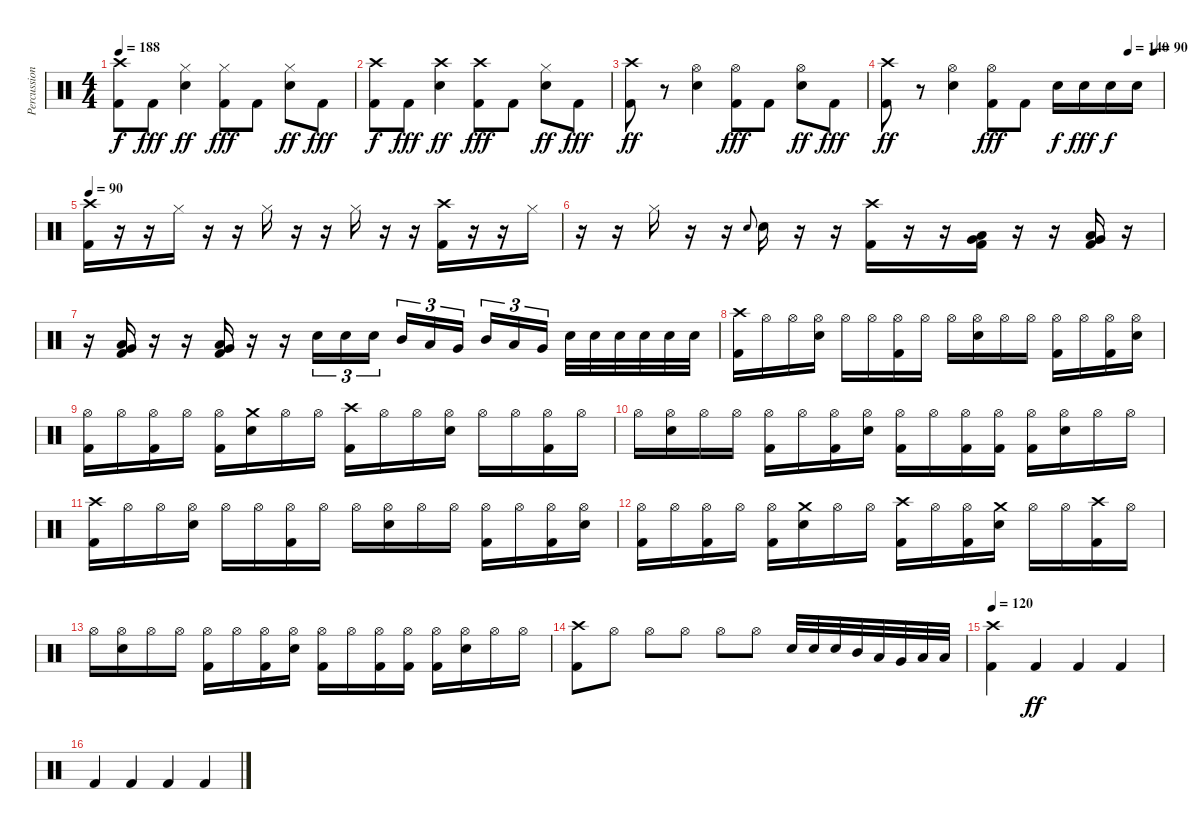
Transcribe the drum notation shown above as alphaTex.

\track ("Percussion" "Percussion") {instrument percussion}
\staff {score}
\articulation defaults
\ts (4 4)
\tempo 188
\clef neutral
\ks c
("Crash high (hit)" "Kick (hit) 2").8{dy f} "Kick (hit) 2".8{dy fff} ("Hi-Hat (closed)" "Snare (hit) 2").4{dy ff} ("Hi-Hat (closed)" "Kick (hit) 2").8{dy fff} "Kick (hit) 2".8 ("Hi-Hat (closed)" "Snare (hit) 2").8{dy ff} "Kick (hit) 2".8{dy fff} |
("Crash high (hit)" "Kick (hit) 2").8{dy f} "Kick (hit) 2".8{dy fff} ("Crash high (hit)" "Snare (hit) 2").4{dy ff} ("Crash high (hit)" "Kick (hit) 2").8{dy fff} "Kick (hit) 2".8 ("Hi-Hat (closed)" "Snare (hit) 2").8{dy ff} "Kick (hit) 2".8{dy fff} |
("Crash high (hit)" "Kick (hit) 2").8{dy ff} r.8 ("Hi-Hat (open)" "Snare (hit) 2").4 ("Hi-Hat (open)" "Kick (hit) 2").8{dy fff} "Kick (hit) 2".8 ("Hi-Hat (open)" "Snare (hit) 2").8{dy ff} "Kick (hit) 2".8{dy fff} |
\tempo (140 0.875)
\tempo (90 0.96875)
("Crash high (hit)" "Kick (hit) 2").8{dy ff} r.8 ("Hi-Hat (open)" "Snare (hit) 2").4 ("Hi-Hat (open)" "Kick (hit) 2").8{dy fff} "Kick (hit) 2".8 "Snare (hit) 2".16{dy f} "Snare (hit) 2".16{dy fff} "Snare (hit) 2".16{dy f} "Snare (hit) 2".16 |
\tempo 90
("Crash high (hit)" "Kick (hit) 2").16 r.16 r.16 "Hi-Hat (closed)".16 r.16 r.16 "Hi-Hat (closed)".16 r.16 r.16 "Hi-Hat (closed)".16 r.16 r.16 ("Crash high (hit)" "Kick (hit) 2").16 r.16 r.16 "Hi-Hat (closed)".16 |
r.16 r.16 "Hi-Hat (closed)".16 r.16 r.16 "Snare (hit) 2".8{gr onbeat} "Snare (hit) 2".16 r.16 r.16 ("Crash high (hit)" "Kick (hit) 2").16 r.16 r.16 ("Low Floor Tom (hit)" "Very Low Tom (hit)" "Kick (hit) 2").16 r.16 r.16 ("Low Floor Tom (hit)" "Very Low Tom (hit)" "Kick (hit) 2").16 r.16 |
r.16 ("Very Low Tom (hit)" "Low Floor Tom (hit)" "Kick (hit) 2").16 r.16 r.16 ("Very Low Tom (hit)" "Low Floor Tom (hit)" "Kick (hit) 2").16 r.16 r.16 "Snare (hit) 2".16{tu (3 2)} "Snare (hit) 2".16{tu (3 2)} "Snare (hit) 2".16{tu (3 2) beam splitsecondary} "Mid Tom (hit)".16{tu (3 2)} "Low Tom (hit)".16{tu (3 2)} "Very Low Tom (hit)".16{tu (3 2) beam splitsecondary} "Mid Tom (hit)".16{tu (3 2)} "Low Tom (hit)".16{tu (3 2)} "Very Low Tom (hit)".16{tu (3 2) beam splitsecondary} "Snare (hit) 2".32 "Snare (hit) 2".32 "Snare (hit) 2".32 "Snare (hit) 2".32 "Snare (hit) 2".32 "Snare (hit) 2".32 |
("Crash high (hit)" "Kick (hit) 2").16 "Hi-Hat (open)".16 "Hi-Hat (open)".16 ("Hi-Hat (open)" "Snare (hit) 2").16 "Hi-Hat (open)".16 "Hi-Hat (open)".16 ("Hi-Hat (open)" "Kick (hit) 2").16 "Hi-Hat (open)".16 "Hi-Hat (open)".16 ("Hi-Hat (open)" "Snare (hit) 2").16 "Hi-Hat (open)".16 "Hi-Hat (open)".16 ("Hi-Hat (open)" "Kick (hit) 2").16 "Hi-Hat (open)".16 ("Hi-Hat (open)" "Kick (hit) 2").16 ("Hi-Hat (open)" "Snare (hit) 2").16 |
("Hi-Hat (open)" "Kick (hit) 2").16 "Hi-Hat (open)".16 ("Hi-Hat (open)" "Kick (hit) 2").16 "Hi-Hat (open)".16 ("Hi-Hat (open)" "Kick (hit) 2").16 ("Crash medium (hit)" "Snare (hit) 2").16 "Hi-Hat (open)".16 "Hi-Hat (open)".16 ("Crash high (hit)" "Kick (hit) 2").16 "Hi-Hat (open)".16 "Hi-Hat (open)".16 ("Hi-Hat (open)" "Snare (hit) 2").16 "Hi-Hat (open)".16 "Hi-Hat (open)".16 ("Hi-Hat (open)" "Kick (hit) 2").16 "Hi-Hat (open)".16 |
"Hi-Hat (open)".16 ("Hi-Hat (open)" "Snare (hit) 2").16 "Hi-Hat (open)".16 "Hi-Hat (open)".16 ("Hi-Hat (open)" "Kick (hit) 2").16 "Hi-Hat (open)".16 ("Hi-Hat (open)" "Kick (hit) 2").16 ("Hi-Hat (open)" "Snare (hit) 2").16 ("Hi-Hat (open)" "Kick (hit) 2").16 "Hi-Hat (open)".16 ("Hi-Hat (open)" "Kick (hit) 2").16 ("Hi-Hat (open)" "Kick (hit) 2").16 ("Hi-Hat (open)" "Kick (hit) 2").16 ("Hi-Hat (open)" "Snare (hit) 2").16 "Hi-Hat (open)".16 "Hi-Hat (open)".16 |
("Crash high (hit)" "Kick (hit) 2").16 "Hi-Hat (open)".16 "Hi-Hat (open)".16 ("Hi-Hat (open)" "Snare (hit) 2").16 "Hi-Hat (open)".16 "Hi-Hat (open)".16 ("Hi-Hat (open)" "Kick (hit) 2").16 "Hi-Hat (open)".16 "Hi-Hat (open)".16 ("Hi-Hat (open)" "Snare (hit) 2").16 "Hi-Hat (open)".16 "Hi-Hat (open)".16 ("Hi-Hat (open)" "Kick (hit) 2").16 "Hi-Hat (open)".16 ("Hi-Hat (open)" "Kick (hit) 2").16 ("Hi-Hat (open)" "Snare (hit) 2").16 |
("Hi-Hat (open)" "Kick (hit) 2").16 "Hi-Hat (open)".16 ("Hi-Hat (open)" "Kick (hit) 2").16 "Hi-Hat (open)".16 ("Hi-Hat (open)" "Kick (hit) 2").16 ("Crash medium (hit)" "Snare (hit) 2").16 "Hi-Hat (open)".16 "Hi-Hat (open)".16 ("Crash high (hit)" "Kick (hit) 2").16 "Hi-Hat (open)".16 ("Hi-Hat (open)" "Kick (hit) 2").16 ("Crash medium (hit)" "Snare (hit) 2").16 "Hi-Hat (open)".16 "Hi-Hat (open)".16 ("Crash high (hit)" "Kick (hit) 2").16 "Hi-Hat (open)".16 |
"Hi-Hat (open)".16 ("Hi-Hat (open)" "Snare (hit) 2").16 "Hi-Hat (open)".16 "Hi-Hat (open)".16 ("Hi-Hat (open)" "Kick (hit) 2").16 "Hi-Hat (open)".16 ("Hi-Hat (open)" "Kick (hit) 2").16 ("Hi-Hat (open)" "Snare (hit) 2").16 ("Hi-Hat (open)" "Kick (hit) 2").16 "Hi-Hat (open)".16 ("Hi-Hat (open)" "Kick (hit) 2").16 ("Hi-Hat (open)" "Kick (hit) 2").16 ("Hi-Hat (open)" "Kick (hit) 2").16 ("Hi-Hat (open)" "Snare (hit) 2").16 "Hi-Hat (open)".16 "Hi-Hat (open)".16 |
("Crash high (hit)" "Kick (hit) 2").8 "Hi-Hat (open)".8 "Hi-Hat (open)".8 "Hi-Hat (open)".8 "Hi-Hat (open)".8 "Hi-Hat (open)".8 "Snare (hit) 2".32 "Snare (hit) 2".32 "Snare (hit) 2".32 "Mid Tom (hit)".32 "Low Tom (hit)".32 "Very Low Tom (hit)".32 "Low Floor Tom (hit)".32 "Low Floor Tom (hit)".32 |
\tempo 120
("Crash high (hit)" "Kick (hit) 2").4 "Kick (hit) 2".4{dy ff} "Kick (hit) 2".4 "Kick (hit) 2".4 |
"Kick (hit) 2".4 "Kick (hit) 2".4 "Kick (hit) 2".4 "Kick (hit) 2".4
